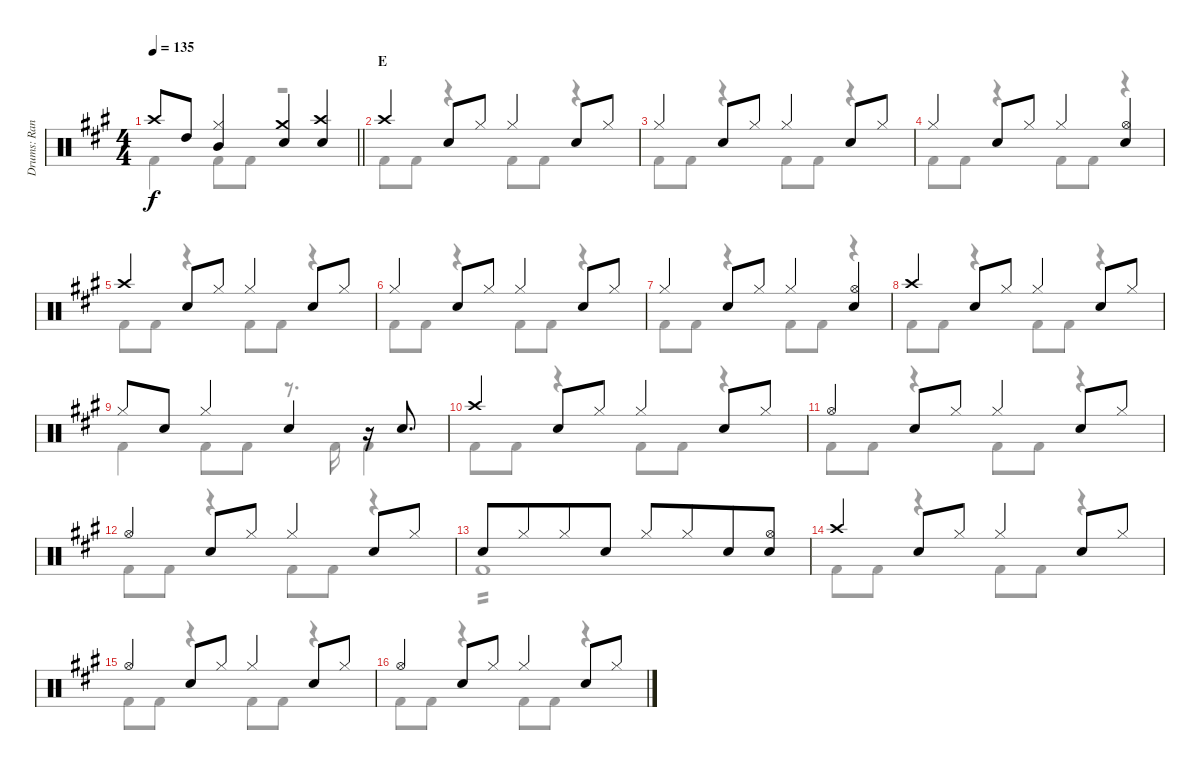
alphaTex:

\track ("Drums: Randy" "Drums: Ran") {instrument percussion}
\staff {score}
\articulation defaults
\voice
\ts (4 4)
\tempo 135
\clef neutral
\barLineRight lightlight
\ks a "Crash high (hit)".8{dy f} "High Tom (hit)".8
("Hi-Hat (closed)" "Mid Tom (hit)").4 ("Crash medium (hit)" "Snare (hit) 2").4 ("Crash high (hit)" "Snare (hit) 2").4 |
\section ("" "E")
"Crash high (hit)".4 "Snare (hit) 2".8 "Hi-Hat (closed)".8 "Hi-Hat (closed)".4 "Snare (hit) 2".8 "Hi-Hat (closed)".8 |
"Hi-Hat (closed)".4 "Snare (hit) 2".8 "Hi-Hat (closed)".8 "Hi-Hat (closed)".4 "Snare (hit) 2".8 "Hi-Hat (closed)".8 |
"Hi-Hat (closed)".4 "Snare (hit) 2".8 "Hi-Hat (closed)".8 "Hi-Hat (closed)".4 ("Hi-Hat (open)" "Snare (hit) 2").4 |
"Crash high (hit)".4 "Snare (hit) 2".8 "Hi-Hat (closed)".8 "Hi-Hat (closed)".4 "Snare (hit) 2".8 "Hi-Hat (closed)".8 |
"Hi-Hat (closed)".4 "Snare (hit) 2".8 "Hi-Hat (closed)".8 "Hi-Hat (closed)".4 "Snare (hit) 2".8 "Hi-Hat (closed)".8 |
"Hi-Hat (closed)".4 "Snare (hit) 2".8 "Hi-Hat (closed)".8 "Hi-Hat (closed)".4 ("Hi-Hat (open)" "Snare (hit) 2").4 |
"Crash high (hit)".4 "Snare (hit) 2".8 "Hi-Hat (closed)".8 "Hi-Hat (closed)".4 "Snare (hit) 2".8 "Hi-Hat (closed)".8 |
"Hi-Hat (closed)".8 "Snare (hit) 2".8 "Hi-Hat (closed)".4 "Snare (hit) 2".4 r.16 "Snare (hit) 2".8{d} |
"Crash high (hit)".4 "Snare (hit) 2".8 "Hi-Hat (closed)".8 "Hi-Hat (closed)".4 "Snare (hit) 2".8 "Hi-Hat (closed)".8 |
"Hi-Hat (open)".4 "Snare (hit) 2".8 "Hi-Hat (closed)".8 "Hi-Hat (closed)".4 "Snare (hit) 2".8 "Hi-Hat (closed)".8 |
"Hi-Hat (open)".4 "Snare (hit) 2".8 "Hi-Hat (closed)".8 "Hi-Hat (closed)".4 "Snare (hit) 2".8 "Hi-Hat (closed)".8 |
"Snare (hit) 2".8 "Hi-Hat (closed)".8{beam merge} "Hi-Hat (closed)".8 "Snare (hit) 2".8 "Hi-Hat (closed)".8 "Hi-Hat (closed)".8{beam merge} "Snare (hit) 2".8 ("Hi-Hat (open)" "Snare (hit) 2").8 |
"Crash high (hit)".4 "Snare (hit) 2".8 "Hi-Hat (closed)".8 "Hi-Hat (closed)".4 "Snare (hit) 2".8 "Hi-Hat (closed)".8 |
"Hi-Hat (open)".4 "Snare (hit) 2".8 "Hi-Hat (closed)".8 "Hi-Hat (closed)".4 "Snare (hit) 2".8 "Hi-Hat (closed)".8 |
"Hi-Hat (open)".4 "Snare (hit) 2".8 "Hi-Hat (closed)".8 "Hi-Hat (closed)".4 "Snare (hit) 2".8 "Hi-Hat (closed)".8
\voice
\clef neutral
\ottava regular
\simile none
\barLineRight lightlight
\ks a "Kick (hit) 2".4{dy f} "Kick (hit) 2".8 "Kick (hit) 2".8
r.2 |
"Kick (hit) 2".8 "Kick (hit) 2".8 r.4 "Kick (hit) 2".8 "Kick (hit) 2".8 r.4 |
"Kick (hit) 2".8 "Kick (hit) 2".8 r.4 "Kick (hit) 2".8 "Kick (hit) 2".8 r.4 |
"Kick (hit) 2".8 "Kick (hit) 2".8 r.4 "Kick (hit) 2".8 "Kick (hit) 2".8 r.4 |
"Kick (hit) 2".8 "Kick (hit) 2".8 r.4 "Kick (hit) 2".8 "Kick (hit) 2".8 r.4 |
"Kick (hit) 2".8 "Kick (hit) 2".8 r.4 "Kick (hit) 2".8 "Kick (hit) 2".8 r.4 |
"Kick (hit) 2".8 "Kick (hit) 2".8 r.4 "Kick (hit) 2".8 "Kick (hit) 2".8 r.4 |
"Kick (hit) 2".8 "Kick (hit) 2".8 r.4 "Kick (hit) 2".8 "Kick (hit) 2".8 r.4 |
"Kick (hit) 2".4 "Kick (hit) 2".8 "Kick (hit) 2".8 r.8{d} "Kick (hit) 2".16 "Kick (hit) 2".4 |
"Kick (hit) 2".8 "Kick (hit) 2".8 r.4 "Kick (hit) 2".8 "Kick (hit) 2".8 r.4 |
"Kick (hit) 2".8 "Kick (hit) 2".8 r.4 "Kick (hit) 2".8 "Kick (hit) 2".8 r.4 |
"Kick (hit) 2".8 "Kick (hit) 2".8 r.4 "Kick (hit) 2".8 "Kick (hit) 2".8 r.4 |
"Kick (hit) 2".1{tp 2} |
"Kick (hit) 2".8 "Kick (hit) 2".8 r.4 "Kick (hit) 2".8 "Kick (hit) 2".8 r.4 |
"Kick (hit) 2".8 "Kick (hit) 2".8 r.4 "Kick (hit) 2".8 "Kick (hit) 2".8 r.4 |
"Kick (hit) 2".8 "Kick (hit) 2".8 r.4 "Kick (hit) 2".8 "Kick (hit) 2".8 r.4
